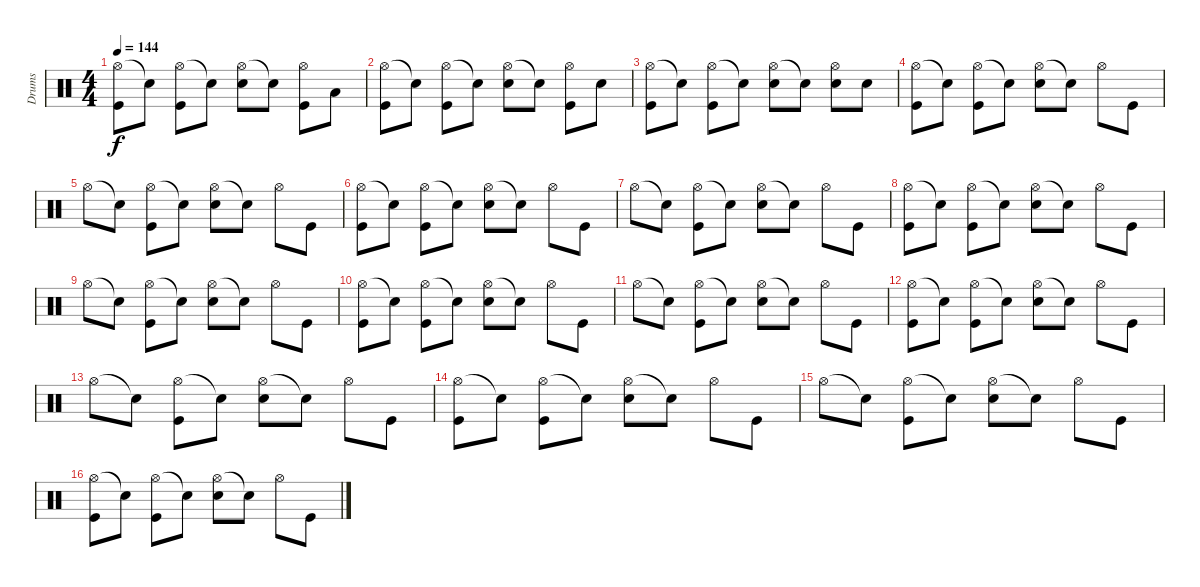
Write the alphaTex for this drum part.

\track ("Drums               " "Drums     ") {instrument percussion}
\staff {score}
\articulation defaults
\ts (4 4)
\tempo 144
\clef neutral
\ks c
("Hi-Hat (open)" "Kick (hit)").8{dy f} "Snare (hit)"{t}.8 ("Hi-Hat (open)" "Kick (hit)").8 "Snare (hit)"{t}.8 ("Hi-Hat (open)" "Snare (hit) 2").8 "Snare (hit)"{t}.8 ("Hi-Hat (open)" "Kick (hit)").8 "Low Tom (hit)".8 |
("Hi-Hat (open)" "Kick (hit)").8 "Snare (hit)"{t}.8 ("Hi-Hat (open)" "Kick (hit)").8 "Snare (hit)"{t}.8 ("Hi-Hat (open)" "Snare (hit) 2").8 "Snare (hit)"{t}.8 ("Hi-Hat (open)" "Kick (hit)").8 "Snare (hit) 2".8 |
("Hi-Hat (open)" "Kick (hit)").8 "Snare (hit)"{t}.8 ("Hi-Hat (open)" "Kick (hit)").8 "Snare (hit)"{t}.8 ("Hi-Hat (open)" "Snare (hit) 2").8 "Snare (hit)"{t}.8 ("Hi-Hat (open)" "Snare (hit) 2").8 "Snare (hit) 2".8 |
("Hi-Hat (open)" "Kick (hit)").8 "Snare (hit)"{t}.8 ("Hi-Hat (open)" "Kick (hit)").8 "Snare (hit)"{t}.8 ("Hi-Hat (open)" "Snare (hit) 2").8 "Snare (hit)"{t}.8 "Hi-Hat (open)".8 "Kick (hit)".8 |
"Hi-Hat (open)".8 "Snare (hit)"{t}.8 ("Hi-Hat (open)" "Kick (hit)").8 "Snare (hit)"{t}.8 ("Hi-Hat (open)" "Snare (hit) 2").8 "Snare (hit)"{t}.8 "Hi-Hat (open)".8 "Kick (hit)".8 |
("Hi-Hat (open)" "Kick (hit)").8 "Snare (hit)"{t}.8 ("Hi-Hat (open)" "Kick (hit)").8 "Snare (hit)"{t}.8 ("Hi-Hat (open)" "Snare (hit) 2").8 "Snare (hit)"{t}.8 "Hi-Hat (open)".8 "Kick (hit)".8 |
"Hi-Hat (open)".8 "Snare (hit)"{t}.8 ("Hi-Hat (open)" "Kick (hit)").8 "Snare (hit)"{t}.8 ("Hi-Hat (open)" "Snare (hit) 2").8 "Snare (hit)"{t}.8 "Hi-Hat (open)".8 "Kick (hit)".8 |
("Hi-Hat (open)" "Kick (hit)").8 "Snare (hit)"{t}.8 ("Hi-Hat (open)" "Kick (hit)").8 "Snare (hit)"{t}.8 ("Hi-Hat (open)" "Snare (hit) 2").8 "Snare (hit)"{t}.8 "Hi-Hat (open)".8 "Kick (hit)".8 |
"Hi-Hat (open)".8 "Snare (hit)"{t}.8 ("Hi-Hat (open)" "Kick (hit)").8 "Snare (hit)"{t}.8 ("Hi-Hat (open)" "Snare (hit) 2").8 "Snare (hit)"{t}.8 "Hi-Hat (open)".8 "Kick (hit)".8 |
("Hi-Hat (open)" "Kick (hit)").8 "Snare (hit)"{t}.8 ("Hi-Hat (open)" "Kick (hit)").8 "Snare (hit)"{t}.8 ("Hi-Hat (open)" "Snare (hit) 2").8 "Snare (hit)"{t}.8 "Hi-Hat (open)".8 "Kick (hit)".8 |
"Hi-Hat (open)".8 "Snare (hit)"{t}.8 ("Hi-Hat (open)" "Kick (hit)").8 "Snare (hit)"{t}.8 ("Hi-Hat (open)" "Snare (hit) 2").8 "Snare (hit)"{t}.8 "Hi-Hat (open)".8 "Kick (hit)".8 |
("Hi-Hat (open)" "Kick (hit)").8 "Snare (hit)"{t}.8 ("Hi-Hat (open)" "Kick (hit)").8 "Snare (hit)"{t}.8 ("Hi-Hat (open)" "Snare (hit) 2").8 "Snare (hit)"{t}.8 "Hi-Hat (open)".8 "Kick (hit)".8 |
"Hi-Hat (open)".8 "Snare (hit)"{t}.8 ("Hi-Hat (open)" "Kick (hit)").8 "Snare (hit)"{t}.8 ("Hi-Hat (open)" "Snare (hit) 2").8 "Snare (hit)"{t}.8 "Hi-Hat (open)".8 "Kick (hit)".8 |
("Hi-Hat (open)" "Kick (hit)").8 "Snare (hit)"{t}.8 ("Hi-Hat (open)" "Kick (hit)").8 "Snare (hit)"{t}.8 ("Hi-Hat (open)" "Snare (hit) 2").8 "Snare (hit)"{t}.8 "Hi-Hat (open)".8 "Kick (hit)".8 |
"Hi-Hat (open)".8 "Snare (hit)"{t}.8 ("Hi-Hat (open)" "Kick (hit)").8 "Snare (hit)"{t}.8 ("Hi-Hat (open)" "Snare (hit) 2").8 "Snare (hit)"{t}.8 "Hi-Hat (open)".8 "Kick (hit)".8 |
("Hi-Hat (open)" "Kick (hit)").8 "Snare (hit)"{t}.8 ("Hi-Hat (open)" "Kick (hit)").8 "Snare (hit)"{t}.8 ("Hi-Hat (open)" "Snare (hit) 2").8 "Snare (hit)"{t}.8 "Hi-Hat (open)".8 "Kick (hit)".8
